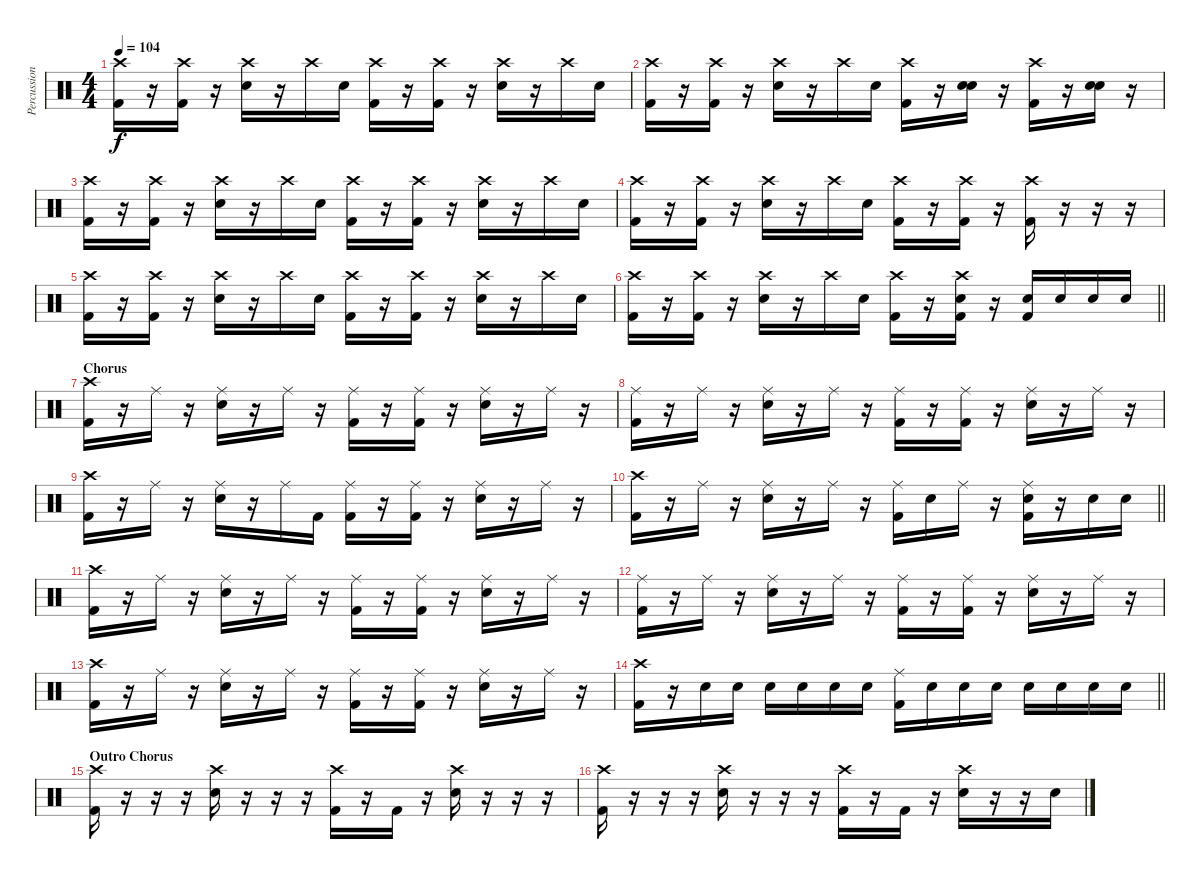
\track ("Percussion" "Percussion") {instrument percussion}
\staff {score}
\articulation defaults
\ts (4 4)
\tempo 104
\clef neutral
\ks c
("Crash high (hit)" "Kick (hit) 2").16{dy f} r.16 ("Crash high (hit)" "Kick (hit) 2").16 r.16 ("Electric Snare (hit)" "Crash high (hit)").16 r.16 "Crash high (hit)".16 "Electric Snare (hit)".16 ("Crash high (hit)" "Kick (hit) 2").16 r.16 ("Crash high (hit)" "Kick (hit) 2").16 r.16 ("Electric Snare (hit)" "Crash high (hit)").16 r.16 "Crash high (hit)".16 "Electric Snare (hit)".16 |
("Crash high (hit)" "Kick (hit) 2").16 r.16 ("Crash high (hit)" "Kick (hit) 2").16 r.16 ("Electric Snare (hit)" "Crash high (hit)").16 r.16 "Crash high (hit)".16 "Electric Snare (hit)".16 ("Crash high (hit)" "Kick (hit) 2").16 r.16 ("Electric Snare (hit)" "Electric Snare (hit)").16 r.16 ("Crash high (hit)" "Kick (hit) 2").16 r.16 ("Electric Snare (hit)" "Electric Snare (hit)").16 r.16 |
("Crash high (hit)" "Kick (hit) 2").16 r.16 ("Crash high (hit)" "Kick (hit) 2").16 r.16 ("Electric Snare (hit)" "Crash high (hit)").16 r.16 "Crash high (hit)".16 "Electric Snare (hit)".16 ("Crash high (hit)" "Kick (hit) 2").16 r.16 ("Crash high (hit)" "Kick (hit) 2").16 r.16 ("Electric Snare (hit)" "Crash high (hit)").16 r.16 "Crash high (hit)".16 "Electric Snare (hit)".16 |
("Crash high (hit)" "Kick (hit) 2").16 r.16 ("Crash high (hit)" "Kick (hit) 2").16 r.16 ("Electric Snare (hit)" "Crash high (hit)").16 r.16 "Crash high (hit)".16 "Electric Snare (hit)".16 ("Crash high (hit)" "Kick (hit) 2").16 r.16 ("Crash high (hit)" "Kick (hit) 2").16 r.16 ("Crash high (hit)" "Kick (hit) 2").16 r.16 r.16 r.16 |
("Crash high (hit)" "Kick (hit) 2").16 r.16 ("Crash high (hit)" "Kick (hit) 2").16 r.16 ("Electric Snare (hit)" "Crash high (hit)").16 r.16 "Crash high (hit)".16 "Electric Snare (hit)".16 ("Crash high (hit)" "Kick (hit) 2").16 r.16 ("Crash high (hit)" "Kick (hit) 2").16 r.16 ("Electric Snare (hit)" "Crash high (hit)").16 r.16 "Crash high (hit)".16 "Electric Snare (hit)".16 |
\barLineRight lightlight
("Crash high (hit)" "Kick (hit) 2").16 r.16 ("Crash high (hit)" "Kick (hit) 2").16 r.16 ("Electric Snare (hit)" "Crash high (hit)").16 r.16 "Crash high (hit)".16 "Electric Snare (hit)".16 ("Crash high (hit)" "Kick (hit) 2").16 r.16 ("Electric Snare (hit)" "Crash high (hit)" "Kick (hit) 2").16 r.16 ("Electric Snare (hit)" "Kick (hit) 2").16 "Electric Snare (hit)".16 "Electric Snare (hit)".16 "Electric Snare (hit)".16 |
\section ("" "Chorus")
("Crash high (hit)" "Kick (hit) 2").16 r.16 "Ride (middle)".16 r.16 ("Electric Snare (hit)" "Ride (middle)").16 r.16 "Ride (middle)".16 r.16 ("Ride (middle)" "Kick (hit) 2").16 r.16 ("Ride (middle)" "Kick (hit) 2").16 r.16 ("Electric Snare (hit)" "Ride (middle)").16 r.16 "Ride (middle)".16 r.16 |
("Ride (middle)" "Kick (hit) 2").16 r.16 "Ride (middle)".16 r.16 ("Electric Snare (hit)" "Ride (middle)").16 r.16 "Ride (middle)".16 r.16 ("Ride (middle)" "Kick (hit) 2").16 r.16 ("Ride (middle)" "Kick (hit) 2").16 r.16 ("Electric Snare (hit)" "Ride (middle)").16 r.16 "Ride (middle)".16 r.16 |
("Crash high (hit)" "Kick (hit) 2").16 r.16 "Ride (middle)".16 r.16 ("Electric Snare (hit)" "Ride (middle)").16 r.16 "Ride (middle)".16 "Kick (hit) 2".16 ("Ride (middle)" "Kick (hit) 2").16 r.16 ("Ride (middle)" "Kick (hit) 2").16 r.16 ("Electric Snare (hit)" "Ride (middle)").16 r.16 "Ride (middle)".16 r.16 |
\barLineRight lightlight
("Crash high (hit)" "Kick (hit) 2").16 r.16 "Ride (middle)".16 r.16 ("Electric Snare (hit)" "Ride (middle)").16 r.16 "Ride (middle)".16 r.16 ("Ride (middle)" "Kick (hit) 2").16 "Electric Snare (hit)".16 "Ride (middle)".16 r.16 ("Electric Snare (hit)" "Ride (middle)" "Kick (hit) 2").16 r.16 "Electric Snare (hit)".16 "Electric Snare (hit)".16 |
("Crash high (hit)" "Kick (hit) 2").16 r.16 "Ride (middle)".16 r.16 ("Electric Snare (hit)" "Ride (middle)").16 r.16 "Ride (middle)".16 r.16 ("Ride (middle)" "Kick (hit) 2").16 r.16 ("Ride (middle)" "Kick (hit) 2").16 r.16 ("Electric Snare (hit)" "Ride (middle)").16 r.16 "Ride (middle)".16 r.16 |
("Ride (middle)" "Kick (hit) 2").16 r.16 "Ride (middle)".16 r.16 ("Electric Snare (hit)" "Ride (middle)").16 r.16 "Ride (middle)".16 r.16 ("Ride (middle)" "Kick (hit) 2").16 r.16 ("Ride (middle)" "Kick (hit) 2").16 r.16 ("Electric Snare (hit)" "Ride (middle)").16 r.16 "Ride (middle)".16 r.16 |
("Crash high (hit)" "Kick (hit) 2").16 r.16 "Ride (middle)".16 r.16 ("Electric Snare (hit)" "Ride (middle)").16 r.16 "Ride (middle)".16 r.16 ("Ride (middle)" "Kick (hit) 2").16 r.16 ("Ride (middle)" "Kick (hit) 2").16 r.16 ("Electric Snare (hit)" "Ride (middle)").16 r.16 "Ride (middle)".16 r.16 |
\barLineRight lightlight
("Crash high (hit)" "Kick (hit) 2").16 r.16 "Electric Snare (hit)".16 "Electric Snare (hit)".16 "Electric Snare (hit)".16 "Electric Snare (hit)".16 "Electric Snare (hit)".16 "Electric Snare (hit)".16 ("Ride (middle)" "Kick (hit) 2").16 "Electric Snare (hit)".16 "Electric Snare (hit)".16 "Electric Snare (hit)".16 "Electric Snare (hit)".16 "Electric Snare (hit)".16 "Electric Snare (hit)".16 "Electric Snare (hit)".16 |
\section ("" "Outro Chorus")
("Crash high (hit)" "Kick (hit) 2").16 r.16 r.16 r.16 ("Electric Snare (hit)" "Crash high (hit)").16 r.16 r.16 r.16 ("Crash high (hit)" "Kick (hit) 2").16 r.16 "Kick (hit) 2".16 r.16 ("Electric Snare (hit)" "Crash high (hit)").16 r.16 r.16 r.16 |
("Crash high (hit)" "Kick (hit) 2").16 r.16 r.16 r.16 ("Electric Snare (hit)" "Crash high (hit)").16 r.16 r.16 r.16 ("Crash high (hit)" "Kick (hit) 2").16 r.16 "Kick (hit) 2".16 r.16 ("Electric Snare (hit)" "Crash high (hit)").16 r.16 r.16 "Electric Snare (hit)".16
